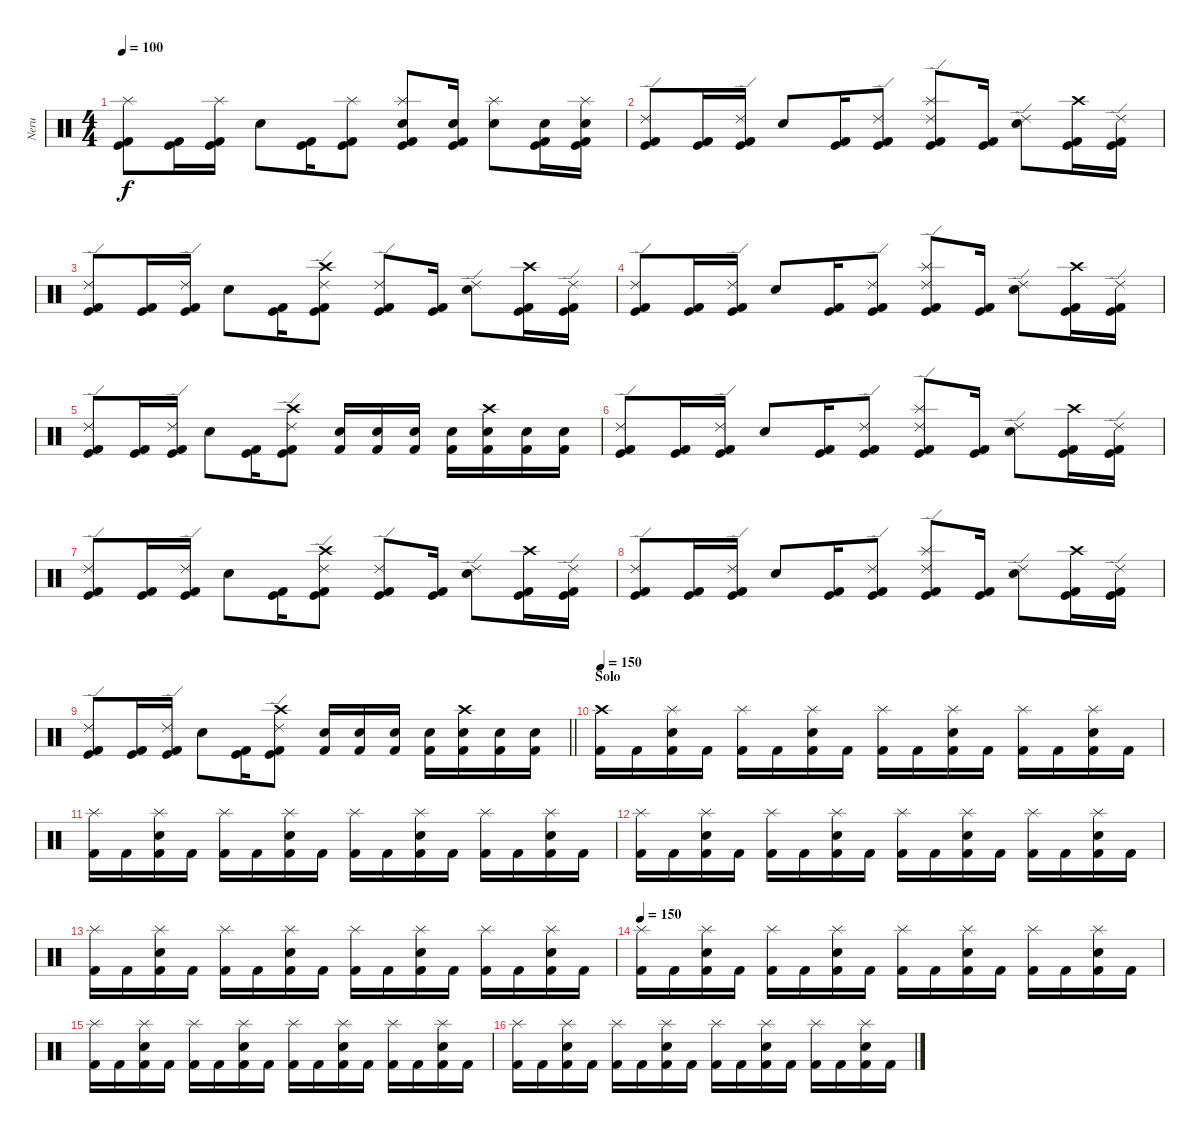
\track ("Neru" "Neru") {instrument percussion}
\staff {score}
\articulation defaults
\ts (4 4)
\tempo 100
\clef neutral
\ks c
("Kick (hit)" "Kick (hit) 2" "Splash (hit)").8{dy f} ("Kick (hit)" "Kick (hit) 2").16 ("Kick (hit)" "Kick (hit) 2" "Splash (hit)").16 "Electric Snare (hit)".8 ("Kick (hit)" "Kick (hit) 2").16 ("Kick (hit)" "Kick (hit) 2" "Splash (hit)").8 ("Kick (hit)" "Kick (hit) 2" "Electric Snare (hit)" "Splash (hit)").8 ("Kick (hit)" "Kick (hit) 2" "Electric Snare (hit)").16 ("Electric Snare (hit)" "Splash (hit)").8 ("Kick (hit)" "Kick (hit) 2" "Electric Snare (hit)").16 ("Kick (hit)" "Kick (hit) 2" "Electric Snare (hit)" "Splash (hit)").16 |
("Kick (hit)" "Kick (hit) 2" "Ride (edge) 2").8 ("Kick (hit)" "Kick (hit) 2").16 ("Kick (hit)" "Kick (hit) 2" "Ride (edge) 2").16 "Electric Snare (hit)".8 ("Kick (hit)" "Kick (hit) 2").16 ("Kick (hit)" "Kick (hit) 2" "Ride (edge) 2").8 ("Kick (hit)" "Kick (hit) 2" "Splash (hit)" "Ride (edge) 2").8 ("Kick (hit)" "Kick (hit) 2").16 ("Electric Snare (hit)" "Ride (edge) 2").8 ("Kick (hit)" "Kick (hit) 2" "Crash high (hit)").16 ("Kick (hit)" "Kick (hit) 2" "Ride (edge) 2").16 |
("Kick (hit)" "Kick (hit) 2" "Ride (edge) 2").8 ("Kick (hit)" "Kick (hit) 2").16 ("Kick (hit)" "Kick (hit) 2" "Ride (edge) 2").16 "Electric Snare (hit)".8 ("Kick (hit)" "Kick (hit) 2").16 ("Kick (hit)" "Kick (hit) 2" "Crash high (hit)" "Ride (edge) 2").8 ("Kick (hit)" "Kick (hit) 2" "Ride (edge) 2").8 ("Kick (hit)" "Kick (hit) 2").16 ("Electric Snare (hit)" "Ride (edge) 2").8 ("Kick (hit)" "Kick (hit) 2" "Crash high (hit)").16 ("Kick (hit)" "Kick (hit) 2" "Ride (edge) 2").16 |
("Kick (hit)" "Kick (hit) 2" "Ride (edge) 2").8 ("Kick (hit)" "Kick (hit) 2").16 ("Kick (hit)" "Kick (hit) 2" "Ride (edge) 2").16 "Electric Snare (hit)".8 ("Kick (hit)" "Kick (hit) 2").16 ("Kick (hit)" "Kick (hit) 2" "Ride (edge) 2").8 ("Kick (hit)" "Kick (hit) 2" "Splash (hit)" "Ride (edge) 2").8 ("Kick (hit)" "Kick (hit) 2").16 ("Electric Snare (hit)" "Ride (edge) 2").8 ("Kick (hit)" "Kick (hit) 2" "Crash high (hit)").16 ("Kick (hit)" "Kick (hit) 2" "Ride (edge) 2").16 |
("Kick (hit)" "Kick (hit) 2" "Ride (edge) 2").8 ("Kick (hit)" "Kick (hit) 2").16 ("Kick (hit)" "Kick (hit) 2" "Ride (edge) 2").16 "Electric Snare (hit)".8 ("Kick (hit)" "Kick (hit) 2").16 ("Kick (hit)" "Kick (hit) 2" "Crash high (hit)" "Ride (edge) 2").8 ("Kick (hit) 2" "Electric Snare (hit)").16 ("Kick (hit) 2" "Electric Snare (hit)").16 ("Kick (hit) 2" "Electric Snare (hit)").16 ("Kick (hit) 2" "Electric Snare (hit)").16 ("Kick (hit) 2" "Electric Snare (hit)" "Crash high (hit)").16 ("Kick (hit) 2" "Electric Snare (hit)").16 ("Kick (hit) 2" "Electric Snare (hit)").16 |
("Kick (hit)" "Kick (hit) 2" "Ride (edge) 2").8 ("Kick (hit)" "Kick (hit) 2").16 ("Kick (hit)" "Kick (hit) 2" "Ride (edge) 2").16 "Electric Snare (hit)".8 ("Kick (hit)" "Kick (hit) 2").16 ("Kick (hit)" "Kick (hit) 2" "Ride (edge) 2").8 ("Kick (hit)" "Kick (hit) 2" "Splash (hit)" "Ride (edge) 2").8 ("Kick (hit)" "Kick (hit) 2").16 ("Electric Snare (hit)" "Ride (edge) 2").8 ("Kick (hit)" "Kick (hit) 2" "Crash high (hit)").16 ("Kick (hit)" "Kick (hit) 2" "Ride (edge) 2").16 |
("Kick (hit)" "Kick (hit) 2" "Ride (edge) 2").8 ("Kick (hit)" "Kick (hit) 2").16 ("Kick (hit)" "Kick (hit) 2" "Ride (edge) 2").16 "Electric Snare (hit)".8 ("Kick (hit)" "Kick (hit) 2").16 ("Kick (hit)" "Kick (hit) 2" "Crash high (hit)" "Ride (edge) 2").8 ("Kick (hit)" "Kick (hit) 2" "Ride (edge) 2").8 ("Kick (hit)" "Kick (hit) 2").16 ("Electric Snare (hit)" "Ride (edge) 2").8 ("Kick (hit)" "Kick (hit) 2" "Crash high (hit)").16 ("Kick (hit)" "Kick (hit) 2" "Ride (edge) 2").16 |
("Kick (hit)" "Kick (hit) 2" "Ride (edge) 2").8 ("Kick (hit)" "Kick (hit) 2").16 ("Kick (hit)" "Kick (hit) 2" "Ride (edge) 2").16 "Electric Snare (hit)".8 ("Kick (hit)" "Kick (hit) 2").16 ("Kick (hit)" "Kick (hit) 2" "Ride (edge) 2").8 ("Kick (hit)" "Kick (hit) 2" "Splash (hit)" "Ride (edge) 2").8 ("Kick (hit)" "Kick (hit) 2").16 ("Electric Snare (hit)" "Ride (edge) 2").8 ("Kick (hit)" "Kick (hit) 2" "Crash high (hit)").16 ("Kick (hit)" "Kick (hit) 2" "Ride (edge) 2").16 |
\barLineRight lightlight
("Kick (hit)" "Kick (hit) 2" "Ride (edge) 2").8 ("Kick (hit)" "Kick (hit) 2").16 ("Kick (hit)" "Kick (hit) 2" "Ride (edge) 2").16 "Electric Snare (hit)".8 ("Kick (hit)" "Kick (hit) 2").16 ("Kick (hit)" "Kick (hit) 2" "Crash high (hit)" "Ride (edge) 2").8 ("Kick (hit) 2" "Electric Snare (hit)").16 ("Kick (hit) 2" "Electric Snare (hit)").16 ("Kick (hit) 2" "Electric Snare (hit)").16 ("Kick (hit) 2" "Electric Snare (hit)").16 ("Kick (hit) 2" "Electric Snare (hit)" "Crash high (hit)").16 ("Kick (hit) 2" "Electric Snare (hit)").16 ("Kick (hit) 2" "Electric Snare (hit)").16 |
\section ("" "Solo")
\tempo 150
("Kick (hit) 2" "Crash high (hit)").16 "Kick (hit) 2".16 ("Kick (hit) 2" "Electric Snare (hit)" "Splash (hit)").16 "Kick (hit) 2".16 ("Kick (hit) 2" "Splash (hit)").16 "Kick (hit) 2".16 ("Kick (hit) 2" "Electric Snare (hit)" "Splash (hit)").16 "Kick (hit) 2".16 ("Kick (hit) 2" "Splash (hit)").16 "Kick (hit) 2".16 ("Kick (hit) 2" "Electric Snare (hit)" "Splash (hit)").16 "Kick (hit) 2".16 ("Kick (hit) 2" "Splash (hit)").16 "Kick (hit) 2".16 ("Kick (hit) 2" "Electric Snare (hit)" "Splash (hit)").16 "Kick (hit) 2".16 |
("Kick (hit) 2" "Splash (hit)").16 "Kick (hit) 2".16 ("Kick (hit) 2" "Electric Snare (hit)" "Splash (hit)").16 "Kick (hit) 2".16 ("Kick (hit) 2" "Splash (hit)").16 "Kick (hit) 2".16 ("Kick (hit) 2" "Electric Snare (hit)" "Splash (hit)").16 "Kick (hit) 2".16 ("Kick (hit) 2" "Splash (hit)").16 "Kick (hit) 2".16 ("Kick (hit) 2" "Electric Snare (hit)" "Splash (hit)").16 "Kick (hit) 2".16 ("Kick (hit) 2" "Splash (hit)").16 "Kick (hit) 2".16 ("Kick (hit) 2" "Electric Snare (hit)" "Splash (hit)").16 "Kick (hit) 2".16 |
("Kick (hit) 2" "Splash (hit)").16 "Kick (hit) 2".16 ("Kick (hit) 2" "Electric Snare (hit)" "Splash (hit)").16 "Kick (hit) 2".16 ("Kick (hit) 2" "Splash (hit)").16 "Kick (hit) 2".16 ("Kick (hit) 2" "Electric Snare (hit)" "Splash (hit)").16 "Kick (hit) 2".16 ("Kick (hit) 2" "Splash (hit)").16 "Kick (hit) 2".16 ("Kick (hit) 2" "Electric Snare (hit)" "Splash (hit)").16 "Kick (hit) 2".16 ("Kick (hit) 2" "Splash (hit)").16 "Kick (hit) 2".16 ("Kick (hit) 2" "Electric Snare (hit)" "Splash (hit)").16 "Kick (hit) 2".16 |
("Kick (hit) 2" "Splash (hit)").16 "Kick (hit) 2".16 ("Kick (hit) 2" "Electric Snare (hit)" "Splash (hit)").16 "Kick (hit) 2".16 ("Kick (hit) 2" "Splash (hit)").16 "Kick (hit) 2".16 ("Kick (hit) 2" "Electric Snare (hit)" "Splash (hit)").16 "Kick (hit) 2".16 ("Kick (hit) 2" "Splash (hit)").16 "Kick (hit) 2".16 ("Kick (hit) 2" "Electric Snare (hit)" "Splash (hit)").16 "Kick (hit) 2".16 ("Kick (hit) 2" "Splash (hit)").16 "Kick (hit) 2".16 ("Kick (hit) 2" "Electric Snare (hit)" "Splash (hit)").16 "Kick (hit) 2".16 |
\tempo 150
("Kick (hit) 2" "Splash (hit)").16 "Kick (hit) 2".16 ("Kick (hit) 2" "Electric Snare (hit)" "Splash (hit)").16 "Kick (hit) 2".16 ("Kick (hit) 2" "Splash (hit)").16 "Kick (hit) 2".16 ("Kick (hit) 2" "Electric Snare (hit)" "Splash (hit)").16 "Kick (hit) 2".16 ("Kick (hit) 2" "Splash (hit)").16 "Kick (hit) 2".16 ("Kick (hit) 2" "Electric Snare (hit)" "Splash (hit)").16 "Kick (hit) 2".16 ("Kick (hit) 2" "Splash (hit)").16 "Kick (hit) 2".16 ("Kick (hit) 2" "Electric Snare (hit)" "Splash (hit)").16 "Kick (hit) 2".16 |
("Kick (hit) 2" "Splash (hit)").16 "Kick (hit) 2".16 ("Kick (hit) 2" "Electric Snare (hit)" "Splash (hit)").16 "Kick (hit) 2".16 ("Kick (hit) 2" "Splash (hit)").16 "Kick (hit) 2".16 ("Kick (hit) 2" "Electric Snare (hit)" "Splash (hit)").16 "Kick (hit) 2".16 ("Kick (hit) 2" "Splash (hit)").16 "Kick (hit) 2".16 ("Kick (hit) 2" "Electric Snare (hit)" "Splash (hit)").16 "Kick (hit) 2".16 ("Kick (hit) 2" "Splash (hit)").16 "Kick (hit) 2".16 ("Kick (hit) 2" "Electric Snare (hit)" "Splash (hit)").16 "Kick (hit) 2".16 |
("Kick (hit) 2" "Splash (hit)").16 "Kick (hit) 2".16 ("Kick (hit) 2" "Electric Snare (hit)" "Splash (hit)").16 "Kick (hit) 2".16 ("Kick (hit) 2" "Splash (hit)").16 "Kick (hit) 2".16 ("Kick (hit) 2" "Electric Snare (hit)" "Splash (hit)").16 "Kick (hit) 2".16 ("Kick (hit) 2" "Splash (hit)").16 "Kick (hit) 2".16 ("Kick (hit) 2" "Electric Snare (hit)" "Splash (hit)").16 "Kick (hit) 2".16 ("Kick (hit) 2" "Splash (hit)").16 "Kick (hit) 2".16 ("Kick (hit) 2" "Electric Snare (hit)" "Splash (hit)").16 "Kick (hit) 2".16
